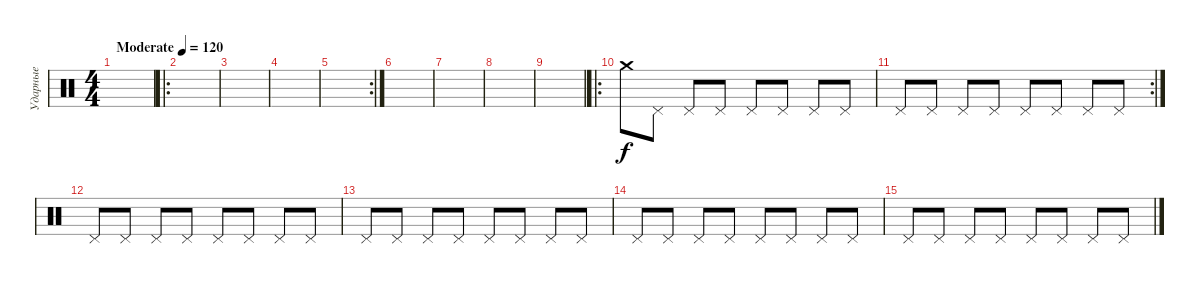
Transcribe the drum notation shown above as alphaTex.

\track ("Ударные" "Ударные") {instrument percussion}
\staff {score}
\articulation defaults
\ts (4 4)
\tempo (120 "Moderate")
\clef neutral
\ks c
|
\ro
|
|
|
\rc 2
|
|
|
|
|
\ro "Crash medium (hit)".8 "Pedal Hi-Hat (hit)".8 "Pedal Hi-Hat (hit)".8 "Pedal Hi-Hat (hit)".8 "Pedal Hi-Hat (hit)".8 "Pedal Hi-Hat (hit)".8 "Pedal Hi-Hat (hit)".8 "Pedal Hi-Hat (hit)".8
|
\rc 2 "Pedal Hi-Hat (hit)".8 "Pedal Hi-Hat (hit)".8 "Pedal Hi-Hat (hit)".8 "Pedal Hi-Hat (hit)".8 "Pedal Hi-Hat (hit)".8 "Pedal Hi-Hat (hit)".8 "Pedal Hi-Hat (hit)".8 "Pedal Hi-Hat (hit)".8
|
"Pedal Hi-Hat (hit)".8 "Pedal Hi-Hat (hit)".8 "Pedal Hi-Hat (hit)".8 "Pedal Hi-Hat (hit)".8 "Pedal Hi-Hat (hit)".8 "Pedal Hi-Hat (hit)".8 "Pedal Hi-Hat (hit)".8 "Pedal Hi-Hat (hit)".8 |
"Pedal Hi-Hat (hit)".8 "Pedal Hi-Hat (hit)".8 "Pedal Hi-Hat (hit)".8 "Pedal Hi-Hat (hit)".8 "Pedal Hi-Hat (hit)".8 "Pedal Hi-Hat (hit)".8 "Pedal Hi-Hat (hit)".8 "Pedal Hi-Hat (hit)".8 |
"Pedal Hi-Hat (hit)".8 "Pedal Hi-Hat (hit)".8 "Pedal Hi-Hat (hit)".8 "Pedal Hi-Hat (hit)".8 "Pedal Hi-Hat (hit)".8 "Pedal Hi-Hat (hit)".8 "Pedal Hi-Hat (hit)".8 "Pedal Hi-Hat (hit)".8 |
"Pedal Hi-Hat (hit)".8 "Pedal Hi-Hat (hit)".8 "Pedal Hi-Hat (hit)".8 "Pedal Hi-Hat (hit)".8 "Pedal Hi-Hat (hit)".8 "Pedal Hi-Hat (hit)".8 "Pedal Hi-Hat (hit)".8 "Pedal Hi-Hat (hit)".8
